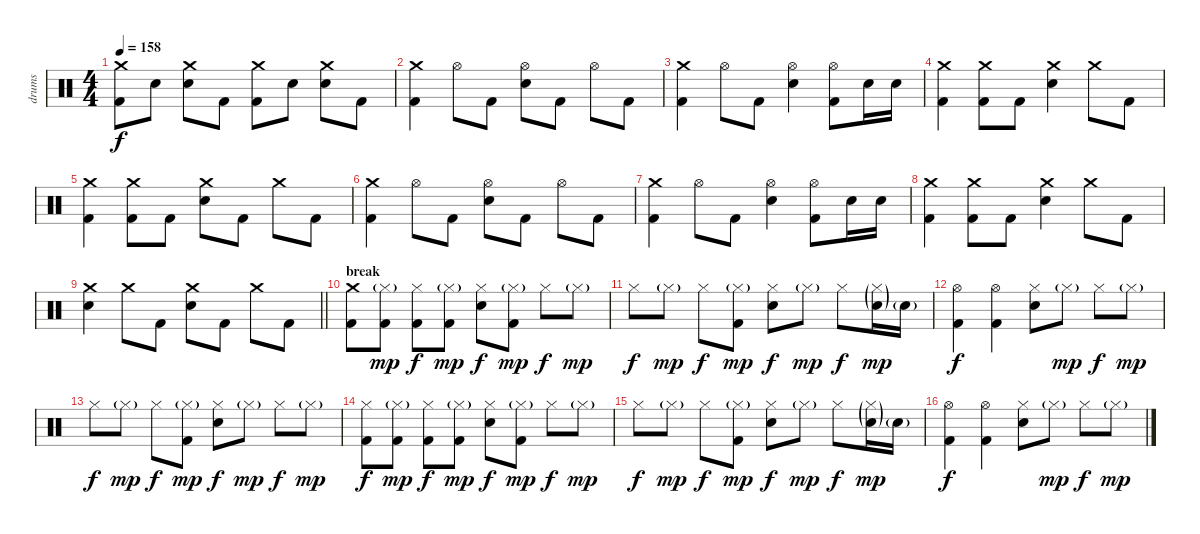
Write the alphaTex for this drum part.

\track ("drums" "drums") {instrument percussion}
\staff {score}
\articulation defaults
\ts (4 4)
\tempo 158
\clef neutral
\ks c
("Crash medium (hit)" "Kick (hit) 2").8{dy f} "Electric Snare (hit)".8 ("Crash medium (hit)" "Electric Snare (hit)").8 "Kick (hit) 2".8 ("Crash medium (hit)" "Kick (hit) 2").8 "Electric Snare (hit)".8 ("Crash medium (hit)" "Electric Snare (hit)").8 "Kick (hit) 2".8 |
("Crash medium (hit)" "Kick (hit) 2").4 "Hi-Hat (open)".8 "Kick (hit) 2".8 ("Hi-Hat (open)" "Electric Snare (hit)").8 "Kick (hit) 2".8 "Hi-Hat (open)".8 "Kick (hit) 2".8 |
("Crash medium (hit)" "Kick (hit) 2").4 "Hi-Hat (open)".8 "Kick (hit) 2".8 ("Hi-Hat (open)" "Electric Snare (hit)").4 ("Hi-Hat (open)" "Kick (hit) 2").8 "Electric Snare (hit)".16 "Electric Snare (hit)".16 |
("Crash medium (hit)" "Kick (hit) 2").4 ("Crash medium (hit)" "Kick (hit) 2").8 "Kick (hit) 2".8 ("Crash medium (hit)" "Electric Snare (hit)").4 "Crash medium (hit)".8 "Kick (hit) 2".8 |
("Crash medium (hit)" "Kick (hit) 2").4 ("Crash medium (hit)" "Kick (hit) 2").8 "Kick (hit) 2".8 ("Crash medium (hit)" "Electric Snare (hit)").8 "Kick (hit) 2".8 "Crash medium (hit)".8 "Kick (hit) 2".8 |
("Crash medium (hit)" "Kick (hit) 2").4 "Hi-Hat (open)".8 "Kick (hit) 2".8 ("Hi-Hat (open)" "Electric Snare (hit)").8 "Kick (hit) 2".8 "Hi-Hat (open)".8 "Kick (hit) 2".8 |
("Crash medium (hit)" "Kick (hit) 2").4 "Hi-Hat (open)".8 "Kick (hit) 2".8 ("Hi-Hat (open)" "Electric Snare (hit)").4 ("Hi-Hat (open)" "Kick (hit) 2").8 "Electric Snare (hit)".16 "Electric Snare (hit)".16 |
("Crash medium (hit)" "Kick (hit) 2").4 ("Crash medium (hit)" "Kick (hit) 2").8 "Kick (hit) 2".8 ("Crash medium (hit)" "Electric Snare (hit)").4 "Crash medium (hit)".8 "Kick (hit) 2".8 |
\barLineRight lightlight
("Crash medium (hit)" "Electric Snare (hit)").4 "Crash medium (hit)".8 "Kick (hit) 2".8 ("Crash medium (hit)" "Electric Snare (hit)").8 "Kick (hit) 2".8 "Crash medium (hit)".8 "Kick (hit) 2".8 |
\section ("" "break")
("Crash medium (hit)" "Kick (hit) 2").8 ("Hi-Hat (closed)"{g} "Kick (hit) 2").8{dy mp} ("Hi-Hat (closed)" "Kick (hit) 2").8{dy f} ("Hi-Hat (closed)"{g} "Kick (hit) 2").8{dy mp} ("Hi-Hat (closed)" "Electric Snare (hit)").8{dy f} ("Hi-Hat (closed)"{g} "Kick (hit) 2").8{dy mp} "Hi-Hat (closed)".8{dy f} "Hi-Hat (closed)"{g}.8{dy mp} |
"Hi-Hat (closed)".8{dy f} "Hi-Hat (closed)"{g}.8{dy mp} "Hi-Hat (closed)".8{dy f} ("Hi-Hat (closed)"{g} "Kick (hit) 2").8{dy mp} ("Hi-Hat (closed)" "Electric Snare (hit)").8{dy f} "Hi-Hat (closed)"{g}.8{dy mp} "Hi-Hat (closed)".8{dy f} ("Hi-Hat (closed)"{g} "Electric Snare (hit)"{g}).16{dy mp} "Electric Snare (hit)"{g}.16 |
("Hi-Hat (open)" "Kick (hit) 2").4{dy f} ("Hi-Hat (open)" "Kick (hit) 2").4 ("Hi-Hat (closed)" "Electric Snare (hit)").8 "Hi-Hat (closed)"{g}.8{dy mp} "Hi-Hat (closed)".8{dy f} "Hi-Hat (closed)"{g}.8{dy mp} |
"Hi-Hat (closed)".8{dy f} "Hi-Hat (closed)"{g}.8{dy mp} "Hi-Hat (closed)".8{dy f} ("Hi-Hat (closed)"{g} "Kick (hit) 2").8{dy mp} ("Hi-Hat (closed)" "Electric Snare (hit)").8{dy f} "Hi-Hat (closed)"{g}.8{dy mp} "Hi-Hat (closed)".8{dy f} "Hi-Hat (closed)"{g}.8{dy mp} |
("Hi-Hat (closed)" "Kick (hit) 2").8{dy f} ("Hi-Hat (closed)"{g} "Kick (hit) 2").8{dy mp} ("Hi-Hat (closed)" "Kick (hit) 2").8{dy f} ("Hi-Hat (closed)"{g} "Kick (hit) 2").8{dy mp} ("Hi-Hat (closed)" "Electric Snare (hit)").8{dy f} ("Hi-Hat (closed)"{g} "Kick (hit) 2").8{dy mp} "Hi-Hat (closed)".8{dy f} "Hi-Hat (closed)"{g}.8{dy mp} |
"Hi-Hat (closed)".8{dy f} "Hi-Hat (closed)"{g}.8{dy mp} "Hi-Hat (closed)".8{dy f} ("Hi-Hat (closed)"{g} "Kick (hit) 2").8{dy mp} ("Hi-Hat (closed)" "Electric Snare (hit)").8{dy f} "Hi-Hat (closed)"{g}.8{dy mp} "Hi-Hat (closed)".8{dy f} ("Hi-Hat (closed)"{g} "Electric Snare (hit)"{g}).16{dy mp} "Electric Snare (hit)"{g}.16 |
("Hi-Hat (open)" "Kick (hit) 2").4{dy f} ("Hi-Hat (open)" "Kick (hit) 2").4 ("Hi-Hat (closed)" "Electric Snare (hit)").8 "Hi-Hat (closed)"{g}.8{dy mp} "Hi-Hat (closed)".8{dy f} "Hi-Hat (closed)"{g}.8{dy mp}
